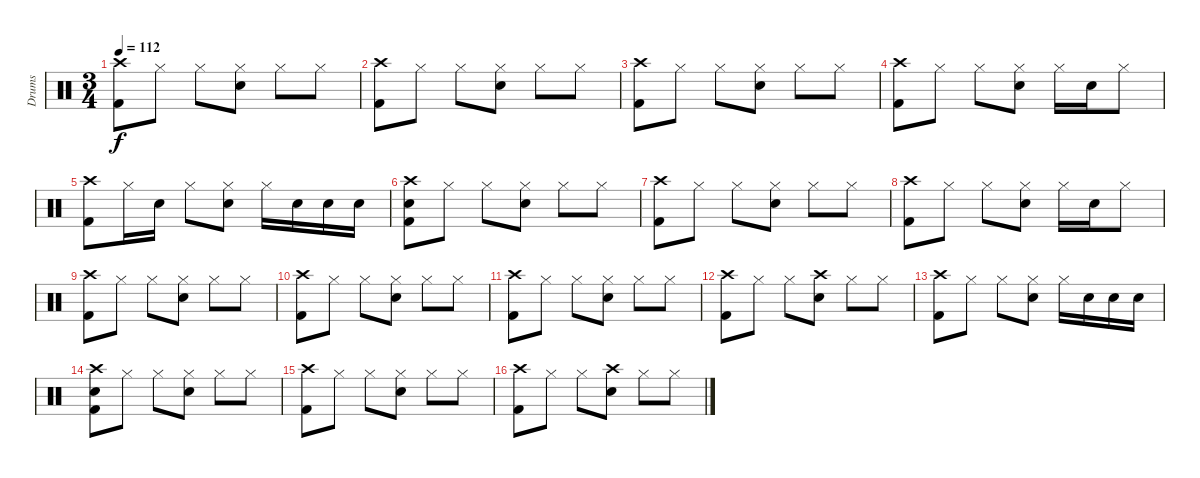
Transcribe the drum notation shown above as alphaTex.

\track ("Drums" "Drums") {instrument percussion}
\staff {score}
\articulation defaults
\ts (3 4)
\tempo 112
\clef neutral
\ks c
("Crash high (hit)" "Kick (hit) 2").8{dy f} "Hi-Hat (closed)".8 "Hi-Hat (closed)".8 ("Hi-Hat (closed)" "Snare (hit) 2").8 "Hi-Hat (closed)".8 "Hi-Hat (closed)".8 |
("Crash high (hit)" "Kick (hit) 2").8 "Hi-Hat (closed)".8 "Hi-Hat (closed)".8 ("Hi-Hat (closed)" "Snare (hit) 2").8 "Hi-Hat (closed)".8 "Hi-Hat (closed)".8 |
("Crash high (hit)" "Kick (hit) 2").8 "Hi-Hat (closed)".8 "Hi-Hat (closed)".8 ("Hi-Hat (closed)" "Snare (hit) 2").8 "Hi-Hat (closed)".8 "Hi-Hat (closed)".8 |
("Crash high (hit)" "Kick (hit) 2").8 "Hi-Hat (closed)".8 "Hi-Hat (closed)".8 ("Hi-Hat (closed)" "Snare (hit) 2").8 "Hi-Hat (closed)".16 "Snare (hit) 2".16 "Hi-Hat (closed)".8 |
("Crash high (hit)" "Kick (hit) 2").8 "Hi-Hat (closed)".16 "Snare (hit) 2".16 "Hi-Hat (closed)".8 ("Hi-Hat (closed)" "Snare (hit) 2").8 "Hi-Hat (closed)".16 "Snare (hit) 2".16 "Snare (hit) 2".16 "Snare (hit) 2".16 |
("Crash high (hit)" "Snare (hit) 2" "Kick (hit) 2").8 "Hi-Hat (closed)".8 "Hi-Hat (closed)".8 ("Hi-Hat (closed)" "Snare (hit) 2").8 "Hi-Hat (closed)".8 "Hi-Hat (closed)".8 |
("Crash high (hit)" "Kick (hit) 2").8 "Hi-Hat (closed)".8 "Hi-Hat (closed)".8 ("Hi-Hat (closed)" "Snare (hit) 2").8 "Hi-Hat (closed)".8 "Hi-Hat (closed)".8 |
("Crash high (hit)" "Kick (hit) 2").8 "Hi-Hat (closed)".8 "Hi-Hat (closed)".8 ("Hi-Hat (closed)" "Snare (hit) 2").8 "Hi-Hat (closed)".16 "Snare (hit) 2".16 "Hi-Hat (closed)".8 |
("Crash high (hit)" "Kick (hit) 2").8 "Hi-Hat (closed)".8 "Hi-Hat (closed)".8 ("Hi-Hat (closed)" "Snare (hit) 2").8 "Hi-Hat (closed)".8 "Hi-Hat (closed)".8 |
("Crash high (hit)" "Kick (hit) 2").8 "Hi-Hat (closed)".8 "Hi-Hat (closed)".8 ("Hi-Hat (closed)" "Snare (hit) 2").8 "Hi-Hat (closed)".8 "Hi-Hat (closed)".8 |
("Crash high (hit)" "Kick (hit) 2").8 "Hi-Hat (closed)".8 "Hi-Hat (closed)".8 ("Hi-Hat (closed)" "Snare (hit) 2").8 "Hi-Hat (closed)".8 "Hi-Hat (closed)".8 |
("Crash high (hit)" "Kick (hit) 2").8 "Hi-Hat (closed)".8 "Hi-Hat (closed)".8 ("Crash high (hit)" "Snare (hit) 2").8 "Hi-Hat (closed)".8 "Hi-Hat (closed)".8 |
("Crash high (hit)" "Kick (hit) 2").8 "Hi-Hat (closed)".8 "Hi-Hat (closed)".8 ("Hi-Hat (closed)" "Snare (hit) 2").8 "Hi-Hat (closed)".16 "Snare (hit) 2".16 "Snare (hit) 2".16 "Snare (hit) 2".16 |
("Crash high (hit)" "Snare (hit) 2" "Kick (hit) 2").8 "Hi-Hat (closed)".8 "Hi-Hat (closed)".8 ("Hi-Hat (closed)" "Snare (hit) 2").8 "Hi-Hat (closed)".8 "Hi-Hat (closed)".8 |
("Crash high (hit)" "Kick (hit) 2").8 "Hi-Hat (closed)".8 "Hi-Hat (closed)".8 ("Hi-Hat (closed)" "Snare (hit) 2").8 "Hi-Hat (closed)".8 "Hi-Hat (closed)".8 |
("Crash high (hit)" "Kick (hit) 2").8 "Hi-Hat (closed)".8 "Hi-Hat (closed)".8 ("Crash high (hit)" "Snare (hit) 2").8 "Hi-Hat (closed)".8 "Hi-Hat (closed)".8
